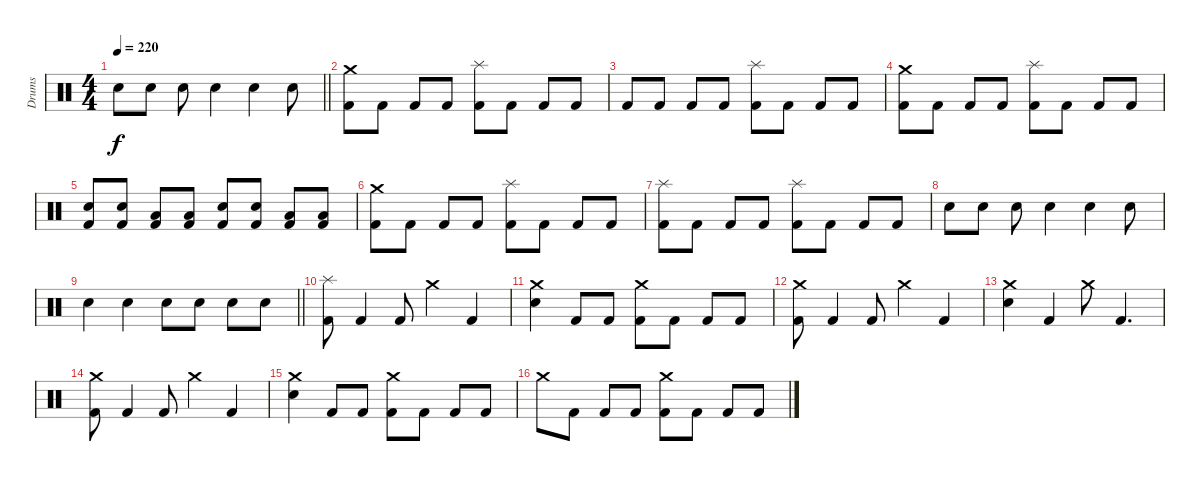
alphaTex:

\track ("Drums" "Drums") {instrument percussion}
\staff {score}
\articulation defaults
\ts (4 4)
\tempo 220
\clef neutral
\barLineRight lightlight
\ks c "Electric Snare (hit)".8{dy f} "Electric Snare (hit)".8 "Electric Snare (hit)".8 "Electric Snare (hit)".4 "Electric Snare (hit)".4 "Electric Snare (hit)".8
|
\section ("" "")
("Crash medium (hit)" "Kick (hit) 2").8 "Kick (hit) 2".8 "Kick (hit) 2".8 "Kick (hit) 2".8 ("Splash (hit)" "Kick (hit) 2").8 "Kick (hit) 2".8 "Kick (hit) 2".8 "Kick (hit) 2".8 |
"Kick (hit) 2".8 "Kick (hit) 2".8 "Kick (hit) 2".8 "Kick (hit) 2".8 ("Splash (hit)" "Kick (hit) 2").8 "Kick (hit) 2".8 "Kick (hit) 2".8 "Kick (hit) 2".8 |
("Crash medium (hit)" "Kick (hit) 2").8 "Kick (hit) 2".8 "Kick (hit) 2".8 "Kick (hit) 2".8 ("Splash (hit)" "Kick (hit) 2").8 "Kick (hit) 2".8 "Kick (hit) 2".8 "Kick (hit) 2".8 |
("Electric Snare (hit)" "Kick (hit) 2").8 ("Electric Snare (hit)" "Kick (hit) 2").8 ("Low Tom (hit)" "Kick (hit) 2").8 ("Low Tom (hit)" "Kick (hit) 2").8 ("Electric Snare (hit)" "Kick (hit) 2").8 ("Electric Snare (hit)" "Kick (hit) 2").8 ("Low Tom (hit)" "Kick (hit) 2").8 ("Low Tom (hit)" "Kick (hit) 2").8 |
("Crash medium (hit)" "Kick (hit) 2").8 "Kick (hit) 2".8 "Kick (hit) 2".8 "Kick (hit) 2".8 ("Splash (hit)" "Kick (hit) 2").8 "Kick (hit) 2".8 "Kick (hit) 2".8 "Kick (hit) 2".8 |
("Splash (hit)" "Kick (hit) 2").8 "Kick (hit) 2".8 "Kick (hit) 2".8 "Kick (hit) 2".8 ("Splash (hit)" "Kick (hit) 2").8 "Kick (hit) 2".8 "Kick (hit) 2".8 "Kick (hit) 2".8 |
"Electric Snare (hit)".8 "Electric Snare (hit)".8 "Electric Snare (hit)".8 "Electric Snare (hit)".4 "Electric Snare (hit)".4 "Electric Snare (hit)".8 |
\barLineRight lightlight "Electric Snare (hit)".4 "Electric Snare (hit)".4 "Electric Snare (hit)".8 "Electric Snare (hit)".8 "Electric Snare (hit)".8 "Electric Snare (hit)".8
|
\section ("" "")
("Splash (hit)" "Kick (hit) 2").8 "Kick (hit) 2".4 "Kick (hit) 2".8 "Crash medium (hit)".4 "Kick (hit) 2".4 |
("Crash medium (hit)" "Electric Snare (hit)").4 "Kick (hit) 2".8 "Kick (hit) 2".8 ("Crash medium (hit)" "Kick (hit) 2").8 "Kick (hit) 2".8 "Kick (hit) 2".8 "Kick (hit) 2".8 |
("Crash medium (hit)" "Kick (hit) 2").8 "Kick (hit) 2".4 "Kick (hit) 2".8 "Crash medium (hit)".4 "Kick (hit) 2".4 |
("Crash medium (hit)" "Electric Snare (hit)").4 "Kick (hit) 2".4 "Crash medium (hit)".8 "Kick (hit) 2".4{d} |
("Crash medium (hit)" "Kick (hit) 2").8 "Kick (hit) 2".4 "Kick (hit) 2".8 "Crash medium (hit)".4 "Kick (hit) 2".4 |
("Crash medium (hit)" "Electric Snare (hit)").4 "Kick (hit) 2".8 "Kick (hit) 2".8 ("Crash medium (hit)" "Kick (hit) 2").8 "Kick (hit) 2".8 "Kick (hit) 2".8 "Kick (hit) 2".8 |
"Crash medium (hit)".8 "Kick (hit) 2".8 "Kick (hit) 2".8 "Kick (hit) 2".8 ("Crash medium (hit)" "Kick (hit) 2").8 "Kick (hit) 2".8 "Kick (hit) 2".8 "Kick (hit) 2".8
